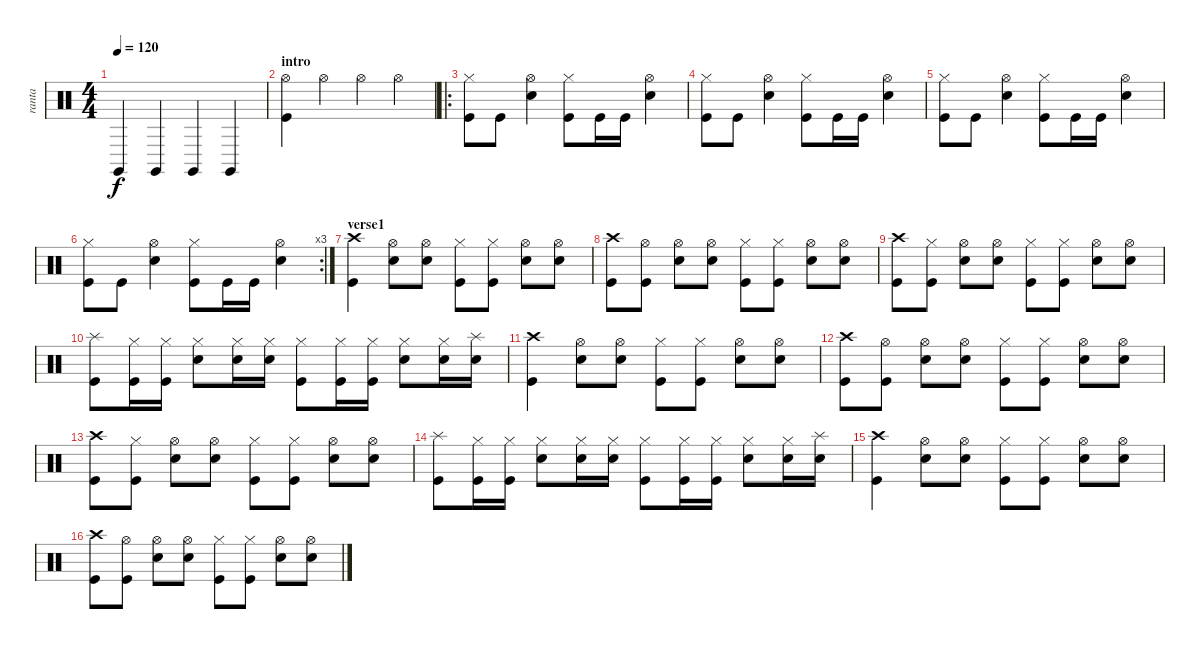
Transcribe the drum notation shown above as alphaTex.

\track ("ranta" "ranta") {instrument percussion}
\staff {score}
\articulation defaults
\ts (4 4)
\tempo 120
\clef neutral
\ks c "Claves (hit)".4{dy f} "Claves (hit)".4 "Claves (hit)".4 "Claves (hit)".4
|
\section ("" "intro")
("Hi-Hat (open)" "Kick (hit)").4 "Hi-Hat (open)".4 "Hi-Hat (open)".4 "Hi-Hat (open)".4 |
\ro
("Hi-Hat (closed)" "Kick (hit)").8 "Kick (hit)".8 ("Hi-Hat (open)" "Snare (hit) 2").4 ("Hi-Hat (closed)" "Kick (hit)").8 "Kick (hit)".16 "Kick (hit)".16 ("Hi-Hat (open)" "Snare (hit) 2").4 |
("Hi-Hat (closed)" "Kick (hit)").8 "Kick (hit)".8 ("Hi-Hat (open)" "Snare (hit) 2").4 ("Hi-Hat (closed)" "Kick (hit)").8 "Kick (hit)".16 "Kick (hit)".16 ("Hi-Hat (open)" "Snare (hit) 2").4 |
("Hi-Hat (closed)" "Kick (hit)").8 "Kick (hit)".8 ("Hi-Hat (open)" "Snare (hit) 2").4 ("Hi-Hat (closed)" "Kick (hit)").8 "Kick (hit)".16 "Kick (hit)".16 ("Hi-Hat (open)" "Snare (hit) 2").4 |
\rc 3
("Hi-Hat (closed)" "Kick (hit)").8 "Kick (hit)".8 ("Hi-Hat (open)" "Snare (hit) 2").4 ("Hi-Hat (closed)" "Kick (hit)").8 "Kick (hit)".16 "Kick (hit)".16 ("Hi-Hat (open)" "Snare (hit) 2").4 |
\section ("" "verse1")
("Crash high (hit)" "Kick (hit)").4 ("Hi-Hat (open)" "Snare (hit) 2").8 ("Hi-Hat (open)" "Snare (hit) 2").8 ("Hi-Hat (closed)" "Kick (hit)").8 ("Hi-Hat (closed)" "Kick (hit)").8 ("Hi-Hat (open)" "Snare (hit) 2").8 ("Hi-Hat (open)" "Snare (hit) 2").8 |
("Crash high (hit)" "Kick (hit)").8 ("Hi-Hat (open)" "Kick (hit)").8 ("Hi-Hat (open)" "Snare (hit) 2").8 ("Hi-Hat (open)" "Snare (hit) 2").8 ("Hi-Hat (closed)" "Kick (hit)").8 ("Hi-Hat (closed)" "Kick (hit)").8 ("Hi-Hat (open)" "Snare (hit) 2").8 ("Hi-Hat (open)" "Snare (hit) 2").8 |
("Crash high (hit)" "Kick (hit)").8 ("Hi-Hat (closed)" "Kick (hit)").8 ("Hi-Hat (open)" "Snare (hit) 2").8 ("Hi-Hat (open)" "Snare (hit) 2").8 ("Hi-Hat (closed)" "Kick (hit)").8 ("Hi-Hat (closed)" "Kick (hit)").8 ("Hi-Hat (open)" "Snare (hit) 2").8 ("Hi-Hat (open)" "Snare (hit) 2").8 |
("Splash (hit)" "Kick (hit)").8 ("Hi-Hat (closed)" "Kick (hit)").16 ("Hi-Hat (closed)" "Kick (hit)").16 ("Hi-Hat (closed)" "Snare (hit) 2").8 ("Hi-Hat (closed)" "Snare (hit) 2").16 ("Hi-Hat (closed)" "Snare (hit) 2").16 ("Hi-Hat (closed)" "Kick (hit)").8 ("Hi-Hat (closed)" "Kick (hit)").16 ("Hi-Hat (closed)" "Kick (hit)").16 ("Hi-Hat (closed)" "Snare (hit) 2").8 ("Hi-Hat (closed)" "Snare (hit) 2").16 ("Splash (hit)" "Snare (hit) 2").16 |
("Crash high (hit)" "Kick (hit)").4 ("Hi-Hat (open)" "Snare (hit) 2").8 ("Hi-Hat (open)" "Snare (hit) 2").8 ("Hi-Hat (closed)" "Kick (hit)").8 ("Hi-Hat (closed)" "Kick (hit)").8 ("Hi-Hat (open)" "Snare (hit) 2").8 ("Hi-Hat (open)" "Snare (hit) 2").8 |
("Crash high (hit)" "Kick (hit)").8 ("Hi-Hat (open)" "Kick (hit)").8 ("Hi-Hat (open)" "Snare (hit) 2").8 ("Hi-Hat (open)" "Snare (hit) 2").8 ("Hi-Hat (closed)" "Kick (hit)").8 ("Hi-Hat (closed)" "Kick (hit)").8 ("Hi-Hat (open)" "Snare (hit) 2").8 ("Hi-Hat (open)" "Snare (hit) 2").8 |
("Crash high (hit)" "Kick (hit)").8 ("Hi-Hat (closed)" "Kick (hit)").8 ("Hi-Hat (open)" "Snare (hit) 2").8 ("Hi-Hat (open)" "Snare (hit) 2").8 ("Hi-Hat (closed)" "Kick (hit)").8 ("Hi-Hat (closed)" "Kick (hit)").8 ("Hi-Hat (open)" "Snare (hit) 2").8 ("Hi-Hat (open)" "Snare (hit) 2").8 |
("Splash (hit)" "Kick (hit)").8 ("Hi-Hat (closed)" "Kick (hit)").16 ("Hi-Hat (closed)" "Kick (hit)").16 ("Hi-Hat (closed)" "Snare (hit) 2").8 ("Hi-Hat (closed)" "Snare (hit) 2").16 ("Hi-Hat (closed)" "Snare (hit) 2").16 ("Hi-Hat (closed)" "Kick (hit)").8 ("Hi-Hat (closed)" "Kick (hit)").16 ("Hi-Hat (closed)" "Kick (hit)").16 ("Hi-Hat (closed)" "Snare (hit) 2").8 ("Hi-Hat (closed)" "Snare (hit) 2").16 ("Splash (hit)" "Snare (hit) 2").16 |
("Crash high (hit)" "Kick (hit)").4 ("Hi-Hat (open)" "Snare (hit) 2").8 ("Hi-Hat (open)" "Snare (hit) 2").8 ("Hi-Hat (closed)" "Kick (hit)").8 ("Hi-Hat (closed)" "Kick (hit)").8 ("Hi-Hat (open)" "Snare (hit) 2").8 ("Hi-Hat (open)" "Snare (hit) 2").8 |
("Crash high (hit)" "Kick (hit)").8 ("Hi-Hat (open)" "Kick (hit)").8 ("Hi-Hat (open)" "Snare (hit) 2").8 ("Hi-Hat (open)" "Snare (hit) 2").8 ("Hi-Hat (closed)" "Kick (hit)").8 ("Hi-Hat (closed)" "Kick (hit)").8 ("Hi-Hat (open)" "Snare (hit) 2").8 ("Hi-Hat (open)" "Snare (hit) 2").8
